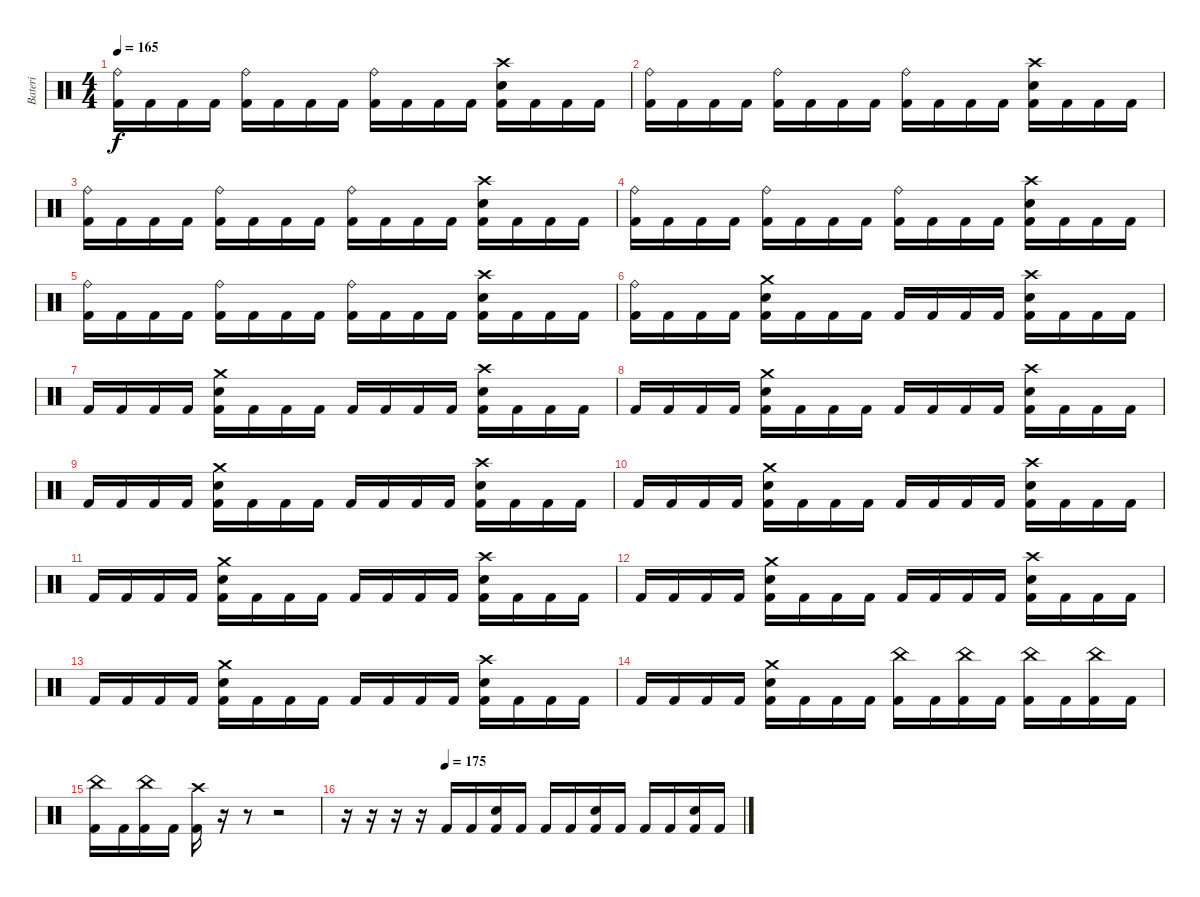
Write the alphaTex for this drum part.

\track ("Bateri" "Bateri") {instrument percussion}
\staff {score}
\articulation defaults
\ts (4 4)
\tempo 165
\clef neutral
\ks c
("Ride (bell)" "Kick (hit) 2").16{dy f} "Kick (hit) 2".16 "Kick (hit) 2".16 "Kick (hit) 2".16 ("Ride (bell)" "Kick (hit) 2").16 "Kick (hit) 2".16 "Kick (hit) 2".16 "Kick (hit) 2".16 ("Ride (bell)" "Kick (hit) 2").16 "Kick (hit) 2".16 "Kick (hit) 2".16 "Kick (hit) 2".16 ("Snare (hit) 2" "Crash high (hit)" "Kick (hit) 2").16 "Kick (hit) 2".16 "Kick (hit) 2".16 "Kick (hit) 2".16 |
("Ride (bell)" "Kick (hit) 2").16 "Kick (hit) 2".16 "Kick (hit) 2".16 "Kick (hit) 2".16 ("Ride (bell)" "Kick (hit) 2").16 "Kick (hit) 2".16 "Kick (hit) 2".16 "Kick (hit) 2".16 ("Ride (bell)" "Kick (hit) 2").16 "Kick (hit) 2".16 "Kick (hit) 2".16 "Kick (hit) 2".16 ("Snare (hit) 2" "Crash high (hit)" "Kick (hit) 2").16 "Kick (hit) 2".16 "Kick (hit) 2".16 "Kick (hit) 2".16 |
("Ride (bell)" "Kick (hit) 2").16 "Kick (hit) 2".16 "Kick (hit) 2".16 "Kick (hit) 2".16 ("Ride (bell)" "Kick (hit) 2").16 "Kick (hit) 2".16 "Kick (hit) 2".16 "Kick (hit) 2".16 ("Ride (bell)" "Kick (hit) 2").16 "Kick (hit) 2".16 "Kick (hit) 2".16 "Kick (hit) 2".16 ("Snare (hit) 2" "Crash high (hit)" "Kick (hit) 2").16 "Kick (hit) 2".16 "Kick (hit) 2".16 "Kick (hit) 2".16 |
("Ride (bell)" "Kick (hit) 2").16 "Kick (hit) 2".16 "Kick (hit) 2".16 "Kick (hit) 2".16 ("Ride (bell)" "Kick (hit) 2").16 "Kick (hit) 2".16 "Kick (hit) 2".16 "Kick (hit) 2".16 ("Ride (bell)" "Kick (hit) 2").16 "Kick (hit) 2".16 "Kick (hit) 2".16 "Kick (hit) 2".16 ("Snare (hit) 2" "Crash high (hit)" "Kick (hit) 2").16 "Kick (hit) 2".16 "Kick (hit) 2".16 "Kick (hit) 2".16 |
("Ride (bell)" "Kick (hit) 2").16 "Kick (hit) 2".16 "Kick (hit) 2".16 "Kick (hit) 2".16 ("Ride (bell)" "Kick (hit) 2").16 "Kick (hit) 2".16 "Kick (hit) 2".16 "Kick (hit) 2".16 ("Ride (bell)" "Kick (hit) 2").16 "Kick (hit) 2".16 "Kick (hit) 2".16 "Kick (hit) 2".16 ("Snare (hit) 2" "Crash high (hit)" "Kick (hit) 2").16 "Kick (hit) 2".16 "Kick (hit) 2".16 "Kick (hit) 2".16 |
("Ride (bell)" "Kick (hit) 2").16 "Kick (hit) 2".16 "Kick (hit) 2".16 "Kick (hit) 2".16 ("Crash medium (hit)" "Snare (hit) 2" "Kick (hit) 2").16 "Kick (hit) 2".16 "Kick (hit) 2".16 "Kick (hit) 2".16 "Kick (hit) 2".16 "Kick (hit) 2".16 "Kick (hit) 2".16 "Kick (hit) 2".16 ("Crash high (hit)" "Snare (hit) 2" "Kick (hit) 2").16 "Kick (hit) 2".16 "Kick (hit) 2".16 "Kick (hit) 2".16 |
"Kick (hit) 2".16 "Kick (hit) 2".16 "Kick (hit) 2".16 "Kick (hit) 2".16 ("Crash medium (hit)" "Snare (hit) 2" "Kick (hit) 2").16 "Kick (hit) 2".16 "Kick (hit) 2".16 "Kick (hit) 2".16 "Kick (hit) 2".16 "Kick (hit) 2".16 "Kick (hit) 2".16 "Kick (hit) 2".16 ("Crash high (hit)" "Snare (hit) 2" "Kick (hit) 2").16 "Kick (hit) 2".16 "Kick (hit) 2".16 "Kick (hit) 2".16 |
"Kick (hit) 2".16 "Kick (hit) 2".16 "Kick (hit) 2".16 "Kick (hit) 2".16 ("Crash medium (hit)" "Snare (hit) 2" "Kick (hit) 2").16 "Kick (hit) 2".16 "Kick (hit) 2".16 "Kick (hit) 2".16 "Kick (hit) 2".16 "Kick (hit) 2".16 "Kick (hit) 2".16 "Kick (hit) 2".16 ("Crash high (hit)" "Snare (hit) 2" "Kick (hit) 2").16 "Kick (hit) 2".16 "Kick (hit) 2".16 "Kick (hit) 2".16 |
"Kick (hit) 2".16 "Kick (hit) 2".16 "Kick (hit) 2".16 "Kick (hit) 2".16 ("Crash medium (hit)" "Snare (hit) 2" "Kick (hit) 2").16 "Kick (hit) 2".16 "Kick (hit) 2".16 "Kick (hit) 2".16 "Kick (hit) 2".16 "Kick (hit) 2".16 "Kick (hit) 2".16 "Kick (hit) 2".16 ("Crash high (hit)" "Snare (hit) 2" "Kick (hit) 2").16 "Kick (hit) 2".16 "Kick (hit) 2".16 "Kick (hit) 2".16 |
"Kick (hit) 2".16 "Kick (hit) 2".16 "Kick (hit) 2".16 "Kick (hit) 2".16 ("Crash medium (hit)" "Snare (hit) 2" "Kick (hit) 2").16 "Kick (hit) 2".16 "Kick (hit) 2".16 "Kick (hit) 2".16 "Kick (hit) 2".16 "Kick (hit) 2".16 "Kick (hit) 2".16 "Kick (hit) 2".16 ("Crash high (hit)" "Snare (hit) 2" "Kick (hit) 2").16 "Kick (hit) 2".16 "Kick (hit) 2".16 "Kick (hit) 2".16 |
"Kick (hit) 2".16 "Kick (hit) 2".16 "Kick (hit) 2".16 "Kick (hit) 2".16 ("Crash medium (hit)" "Snare (hit) 2" "Kick (hit) 2").16 "Kick (hit) 2".16 "Kick (hit) 2".16 "Kick (hit) 2".16 "Kick (hit) 2".16 "Kick (hit) 2".16 "Kick (hit) 2".16 "Kick (hit) 2".16 ("Crash high (hit)" "Snare (hit) 2" "Kick (hit) 2").16 "Kick (hit) 2".16 "Kick (hit) 2".16 "Kick (hit) 2".16 |
"Kick (hit) 2".16 "Kick (hit) 2".16 "Kick (hit) 2".16 "Kick (hit) 2".16 ("Crash medium (hit)" "Snare (hit) 2" "Kick (hit) 2").16 "Kick (hit) 2".16 "Kick (hit) 2".16 "Kick (hit) 2".16 "Kick (hit) 2".16 "Kick (hit) 2".16 "Kick (hit) 2".16 "Kick (hit) 2".16 ("Crash high (hit)" "Snare (hit) 2" "Kick (hit) 2").16 "Kick (hit) 2".16 "Kick (hit) 2".16 "Kick (hit) 2".16 |
"Kick (hit) 2".16 "Kick (hit) 2".16 "Kick (hit) 2".16 "Kick (hit) 2".16 ("Crash medium (hit)" "Snare (hit) 2" "Kick (hit) 2").16 "Kick (hit) 2".16 "Kick (hit) 2".16 "Kick (hit) 2".16 "Kick (hit) 2".16 "Kick (hit) 2".16 "Kick (hit) 2".16 "Kick (hit) 2".16 ("Crash high (hit)" "Snare (hit) 2" "Kick (hit) 2").16 "Kick (hit) 2".16 "Kick (hit) 2".16 "Kick (hit) 2".16 |
"Kick (hit) 2".16 "Kick (hit) 2".16 "Kick (hit) 2".16 "Kick (hit) 2".16 ("Crash medium (hit)" "Snare (hit) 2" "Kick (hit) 2").16 "Kick (hit) 2".16 "Kick (hit) 2".16 "Kick (hit) 2".16 ("China (hit)" "Kick (hit) 2").16 "Kick (hit) 2".16 ("China (hit)" "Kick (hit) 2").16 "Kick (hit) 2".16 ("China (hit)" "Kick (hit) 2").16 "Kick (hit) 2".16 ("China (hit)" "Kick (hit) 2").16 "Kick (hit) 2".16 |
("China (hit)" "Kick (hit) 2").16 "Kick (hit) 2".16 ("China (hit)" "Kick (hit) 2").16 "Kick (hit) 2".16 ("Crash high (hit)" "Kick (hit) 2").16 r.16 r.8 r.2 |
\section ("" "")
\tempo (175 0.25)
r.16 r.16 r.16 r.16 "Kick (hit) 2".16 "Kick (hit) 2".16 ("Snare (hit) 2" "Kick (hit) 2").16 "Kick (hit) 2".16 "Kick (hit) 2".16 "Kick (hit) 2".16 ("Snare (hit) 2" "Kick (hit) 2").16 "Kick (hit) 2".16 "Kick (hit) 2".16 "Kick (hit) 2".16 ("Snare (hit) 2" "Kick (hit) 2").16 "Kick (hit) 2".16
